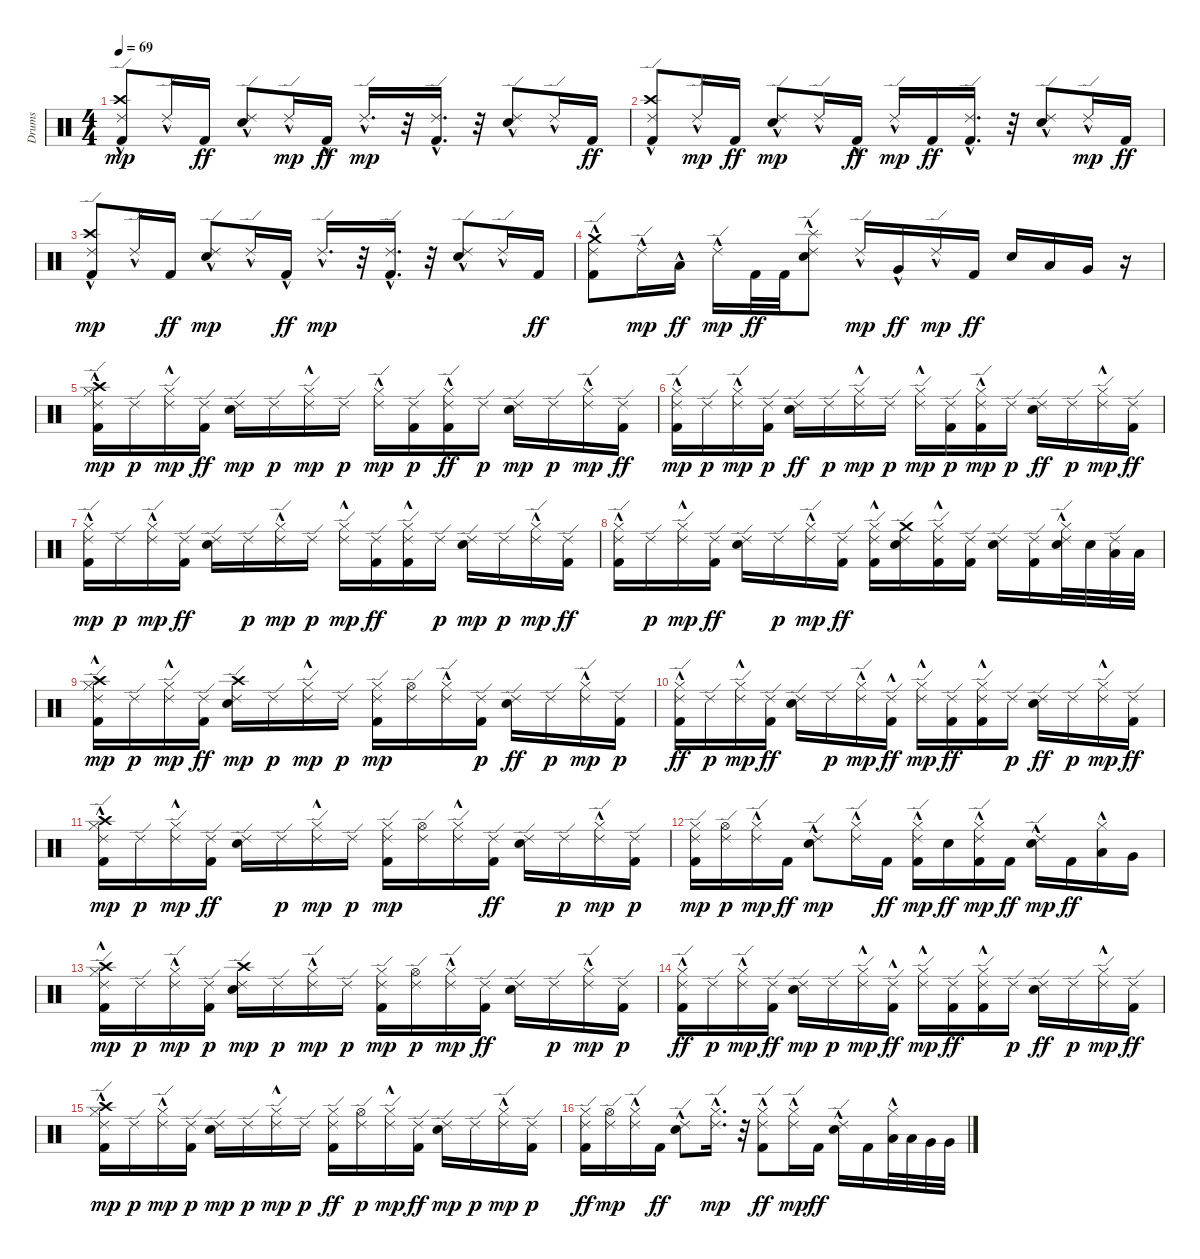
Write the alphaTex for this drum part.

\track ("Drums" "Drums") {instrument percussion}
\staff {score}
\articulation defaults
\ts (4 4)
\tempo 69
\clef neutral
\ks c
("Kick (hit) 2" "Crash high (hit)"{hac} "Ride (edge) 2"{hac}).8{dy mp} "Ride (edge) 2"{hac}.16 "Kick (hit) 2".16{dy ff} ("Ride (edge) 2"{hac} "Electric Snare (hit)").8 "Ride (edge) 2"{hac}.16{dy mp} "Kick (hit) 2"{hac}.16{dy ff} "Ride (edge) 2"{hac}.16{d dy mp} r.32 ("Kick (hit) 2"{hac} "Ride (edge) 2"{hac}).16{d} r.32 ("Electric Snare (hit)" "Ride (edge) 2"{hac}).8 "Ride (edge) 2"{hac}.16 "Kick (hit) 2".16{dy ff} |
("Ride (edge) 2"{hac} "Kick (hit) 2" "Crash high (hit)"{hac}).8 "Ride (edge) 2"{hac}.16{dy mp} "Kick (hit) 2".16{dy ff} ("Electric Snare (hit)" "Ride (edge) 2"{hac}).8{dy mp} "Ride (edge) 2"{hac}.16 "Kick (hit) 2"{hac}.16{dy ff} "Ride (edge) 2"{hac}.16{dy mp} "Kick (hit) 2".16{dy ff} ("Ride (edge) 2"{hac} "Kick (hit) 2"{hac}).16{d} r.32 ("Ride (edge) 2"{hac} "Electric Snare (hit)").8 "Ride (edge) 2"{hac}.16{dy mp} "Kick (hit) 2".16{dy ff} |
("Kick (hit) 2" "Crash high (hit)"{hac} "Ride (edge) 2"{hac}).8{dy mp} "Ride (edge) 2"{hac}.16 "Kick (hit) 2".16{dy ff} ("Electric Snare (hit)" "Ride (edge) 2"{hac}).8{dy mp} "Ride (edge) 2"{hac}.16 "Kick (hit) 2"{hac}.16{dy ff} "Ride (edge) 2"{hac}.16{d dy mp} r.32 ("Kick (hit) 2"{hac} "Ride (edge) 2"{hac}).16{d} r.32 ("Electric Snare (hit)" "Ride (edge) 2"{hac}).8 "Ride (edge) 2"{hac}.16 "Kick (hit) 2".16{dy ff} |
("Ride (edge) 2"{hac} "Crash medium (hit)"{hac} "Kick (hit) 2").8 "Ride (edge) 2"{hac}.16{dy mp} "Low Tom (hit)"{hac}.16{dy ff} "Ride (edge) 2"{hac}.16{dy mp} "Kick (hit) 2".32{dy ff} "Kick (hit) 2".32 ("Ride (edge) 2"{hac} "Electric Snare (hit)" "Splash (hit)").8 "Ride (edge) 2"{hac}.16{dy mp} "Very Low Tom (hit)"{hac}.16{dy ff} "Ride (edge) 2"{hac}.16{dy mp} "Kick (hit) 2".16{dy ff} "Electric Snare (hit)".16 "Low Floor Tom (hit)".16 "Very Low Tom (hit)".16 r.16 |
("Hi-Hat (closed)"{hac} "Crash high (hit)"{hac} "Kick (hit) 2" "Ride (edge) 2").16{dy mp} "Ride (edge) 2".16{dy p} ("Ride (edge) 2" "Hi-Hat (closed)"{hac}).16{dy mp} ("Ride (edge) 2" "Kick (hit) 2").16{dy ff} ("Electric Snare (hit)" "Ride (edge) 2").16{dy mp} "Ride (edge) 2".16{dy p} ("Ride (edge) 2" "Hi-Hat (closed)"{hac}).16{dy mp} "Ride (edge) 2".16{dy p} ("Hi-Hat (closed)"{hac} "Ride (edge) 2").16{dy mp} ("Kick (hit) 2" "Ride (edge) 2").16{dy p} ("Hi-Hat (closed)"{hac} "Ride (edge) 2" "Kick (hit) 2"{hac}).16{dy ff} "Ride (edge) 2".16{dy p} ("Electric Snare (hit)" "Ride (edge) 2").16{dy mp} "Ride (edge) 2".16{dy p} ("Hi-Hat (closed)"{hac} "Ride (edge) 2").16{dy mp} ("Ride (edge) 2" "Kick (hit) 2").16{dy ff} |
("Hi-Hat (closed)"{hac} "Kick (hit) 2" "Ride (edge) 2").16{dy mp} "Ride (edge) 2".16{dy p} ("Hi-Hat (closed)"{hac} "Ride (edge) 2").16{dy mp} ("Kick (hit) 2" "Ride (edge) 2").16{dy p} ("Ride (edge) 2" "Electric Snare (hit)").16{dy ff} "Ride (edge) 2".16{dy p} ("Ride (edge) 2" "Hi-Hat (closed)"{hac}).16{dy mp} "Ride (edge) 2".16{dy p} ("Ride (edge) 2" "Hi-Hat (closed)"{hac}).16{dy mp} ("Kick (hit) 2" "Ride (edge) 2").16{dy p} ("Kick (hit) 2"{hac} "Ride (edge) 2" "Hi-Hat (closed)"{hac}).16{dy mp} "Ride (edge) 2".16{dy p} ("Ride (edge) 2" "Electric Snare (hit)").16{dy ff} "Ride (edge) 2".16{dy p} ("Ride (edge) 2" "Hi-Hat (closed)"{hac}).16{dy mp} ("Ride (edge) 2" "Kick (hit) 2").16{dy ff} |
("Hi-Hat (closed)"{hac} "Kick (hit) 2" "Ride (edge) 2").16{dy mp} "Ride (edge) 2".16{dy p} ("Hi-Hat (closed)"{hac} "Ride (edge) 2").16{dy mp} ("Ride (edge) 2" "Kick (hit) 2").16{dy ff} ("Ride (edge) 2" "Electric Snare (hit)").16 "Ride (edge) 2".16{dy p} ("Hi-Hat (closed)"{hac} "Ride (edge) 2").16{dy mp} "Ride (edge) 2".16{dy p} ("Ride (edge) 2" "Hi-Hat (closed)"{hac}).16{dy mp} ("Ride (edge) 2" "Kick (hit) 2").16{dy ff} ("Ride (edge) 2" "Hi-Hat (closed)"{hac} "Kick (hit) 2"{hac}).16 "Ride (edge) 2".16{dy p} ("Electric Snare (hit)" "Ride (edge) 2").16{dy mp} "Ride (edge) 2".16{dy p} ("Hi-Hat (closed)"{hac} "Ride (edge) 2").16{dy mp} ("Ride (edge) 2" "Kick (hit) 2").16{dy ff} |
("Hi-Hat (closed)"{hac} "Ride (edge) 2" "Kick (hit) 2").16 "Ride (edge) 2".16{dy p} ("Ride (edge) 2" "Hi-Hat (closed)"{hac}).16{dy mp} ("Ride (edge) 2" "Kick (hit) 2").16{dy ff} ("Ride (edge) 2" "Electric Snare (hit)").16 "Ride (edge) 2".16{dy p} ("Hi-Hat (closed)"{hac} "Ride (edge) 2").16{dy mp} ("Ride (edge) 2" "Kick (hit) 2").16{dy ff} ("Ride (edge) 2" "Hi-Hat (closed)"{hac} "Kick (hit) 2").16 ("Ride (edge) 2" "Crash medium (hit)" "Electric Snare (hit)").16 ("Ride (edge) 2" "Hi-Hat (closed)"{hac} "Kick (hit) 2").16 ("Ride (edge) 2" "Kick (hit) 2").16 ("Ride (edge) 2" "Electric Snare (hit)").16 ("Ride (edge) 2" "Kick (hit) 2").16 ("Hi-Hat (closed)"{hac} "Ride (edge) 2" "Electric Snare (hit)").32 "Electric Snare (hit)".32 ("Ride (edge) 2" "Low Tom (hit)").32 "Low Tom (hit)".32 |
("Crash high (hit)" "Ride (edge) 2" "Kick (hit) 2" "Hi-Hat (closed)"{hac}).16{dy mp} "Ride (edge) 2".16{dy p} ("Ride (edge) 2" "Hi-Hat (closed)"{hac}).16{dy mp} ("Ride (edge) 2" "Kick (hit) 2").16{dy ff} ("Ride (edge) 2" "Electric Snare (hit)" "Crash high (hit)").16{dy mp} "Ride (edge) 2".16{dy p} ("Ride (edge) 2" "Hi-Hat (closed)"{hac}).16{dy mp} "Ride (edge) 2".16{dy p} ("Ride (edge) 2" "Kick (hit) 2" "Hi-Hat (closed)").16{dy mp} ("Ride (edge) 2" "Hi-Hat (open)").16 ("Hi-Hat (closed)"{hac} "Ride (edge) 2").16 ("Kick (hit) 2" "Ride (edge) 2").16{dy p} ("Ride (edge) 2" "Electric Snare (hit)").16{dy ff} "Ride (edge) 2".16{dy p} ("Hi-Hat (closed)"{hac} "Ride (edge) 2").16{dy mp} ("Kick (hit) 2" "Ride (edge) 2").16{dy p} |
("Hi-Hat (closed)"{hac} "Ride (edge) 2" "Kick (hit) 2").16{dy ff} "Ride (edge) 2".16{dy p} ("Ride (edge) 2" "Hi-Hat (closed)"{hac}).16{dy mp} ("Ride (edge) 2" "Kick (hit) 2").16{dy ff} ("Ride (edge) 2" "Electric Snare (hit)").16 "Ride (edge) 2".16{dy p} ("Hi-Hat (closed)"{hac} "Ride (edge) 2").16{dy mp} ("Ride (edge) 2" "Kick (hit) 2"{hac}).16{dy ff} ("Ride (edge) 2" "Hi-Hat (closed)"{hac}).16{dy mp} ("Ride (edge) 2" "Kick (hit) 2").16{dy ff} ("Ride (edge) 2" "Hi-Hat (closed)"{hac} "Kick (hit) 2"{hac}).16 "Ride (edge) 2".16{dy p} ("Ride (edge) 2" "Electric Snare (hit)").16{dy ff} "Ride (edge) 2".16{dy p} ("Ride (edge) 2" "Hi-Hat (closed)"{hac}).16{dy mp} ("Ride (edge) 2" "Kick (hit) 2").16{dy ff} |
("Crash high (hit)"{hac} "Kick (hit) 2" "Ride (edge) 2" "Hi-Hat (closed)"{hac}).16{dy mp} "Ride (edge) 2".16{dy p} ("Ride (edge) 2" "Hi-Hat (closed)"{hac}).16{dy mp} ("Ride (edge) 2" "Kick (hit) 2").16{dy ff} ("Ride (edge) 2" "Electric Snare (hit)").16 "Ride (edge) 2".16{dy p} ("Ride (edge) 2" "Hi-Hat (closed)"{hac}).16{dy mp} "Ride (edge) 2".16{dy p} ("Ride (edge) 2" "Kick (hit) 2" "Hi-Hat (closed)").16{dy mp} ("Ride (edge) 2" "Hi-Hat (open)").16 ("Ride (edge) 2" "Hi-Hat (closed)"{hac}).16 ("Ride (edge) 2" "Kick (hit) 2").16{dy ff} ("Ride (edge) 2" "Electric Snare (hit)").16 "Ride (edge) 2".16{dy p} ("Hi-Hat (closed)"{hac} "Ride (edge) 2").16{dy mp} ("Kick (hit) 2" "Ride (edge) 2").16{dy p} |
("Kick (hit) 2" "Hi-Hat (closed)" "Ride (edge) 2").16{dy mp} ("Hi-Hat (open)" "Ride (edge) 2").16{dy p} ("Hi-Hat (closed)"{hac} "Ride (edge) 2"{hac}).16{dy mp} "Kick (hit) 2".16{dy ff} ("Electric Snare (hit)" "Ride (edge) 2"{hac}).8{dy mp} ("Hi-Hat (closed)"{hac} "Ride (edge) 2"{hac}).16 "Kick (hit) 2".16{dy ff} ("Hi-Hat (closed)"{hac} "Kick (hit) 2" "Ride (edge) 2"{hac}).16{dy mp} "Electric Snare (hit)".16{dy ff} ("Kick (hit) 2" "Ride (edge) 2"{hac} "Hi-Hat (closed)"{hac}).16{dy mp} "Kick (hit) 2".16{dy ff} ("Electric Snare (hit)" "Ride (edge) 2"{hac}).16{dy mp} "Kick (hit) 2".16{dy ff} ("Hi-Hat (closed)"{hac} "Low Tom (hit)").16 "Very Low Tom (hit)".16 |
("Crash high (hit)" "Ride (edge) 2" "Kick (hit) 2" "Hi-Hat (closed)"{hac}).16{dy mp} "Ride (edge) 2".16{dy p} ("Hi-Hat (closed)"{hac} "Ride (edge) 2").16{dy mp} ("Kick (hit) 2" "Ride (edge) 2").16{dy p} ("Crash high (hit)" "Electric Snare (hit)" "Ride (edge) 2").16{dy mp} "Ride (edge) 2".16{dy p} ("Hi-Hat (closed)"{hac} "Ride (edge) 2").16{dy mp} "Ride (edge) 2".16{dy p} ("Ride (edge) 2" "Kick (hit) 2" "Hi-Hat (closed)").16{dy mp} ("Hi-Hat (open)" "Ride (edge) 2").16{dy p} ("Hi-Hat (closed)"{hac} "Ride (edge) 2").16{dy mp} ("Ride (edge) 2" "Kick (hit) 2").16{dy ff} ("Ride (edge) 2" "Electric Snare (hit)").16 "Ride (edge) 2".16{dy p} ("Hi-Hat (closed)"{hac} "Ride (edge) 2").16{dy mp} ("Kick (hit) 2" "Ride (edge) 2").16{dy p} |
("Hi-Hat (closed)"{hac} "Ride (edge) 2" "Kick (hit) 2").16{dy ff} "Ride (edge) 2".16{dy p} ("Hi-Hat (closed)"{hac} "Ride (edge) 2").16{dy mp} ("Ride (edge) 2" "Kick (hit) 2").16{dy ff} ("Electric Snare (hit)" "Ride (edge) 2").16{dy mp} "Ride (edge) 2".16{dy p} ("Ride (edge) 2" "Hi-Hat (closed)"{hac}).16{dy mp} ("Ride (edge) 2" "Kick (hit) 2"{hac}).16{dy ff} ("Ride (edge) 2" "Hi-Hat (closed)"{hac}).16{dy mp} ("Ride (edge) 2" "Kick (hit) 2").16{dy ff} ("Ride (edge) 2" "Hi-Hat (closed)"{hac} "Kick (hit) 2"{hac}).16 "Ride (edge) 2".16{dy p} ("Ride (edge) 2" "Electric Snare (hit)").16{dy ff} "Ride (edge) 2".16{dy p} ("Ride (edge) 2" "Hi-Hat (closed)"{hac}).16{dy mp} ("Ride (edge) 2" "Kick (hit) 2").16{dy ff} |
("Crash high (hit)"{hac} "Kick (hit) 2" "Ride (edge) 2" "Hi-Hat (closed)"{hac}).16{dy mp} "Ride (edge) 2".16{dy p} ("Hi-Hat (closed)"{hac} "Ride (edge) 2").16{dy mp} ("Kick (hit) 2" "Ride (edge) 2").16{dy p} ("Electric Snare (hit)" "Ride (edge) 2").16{dy mp} "Ride (edge) 2".16{dy p} ("Ride (edge) 2" "Hi-Hat (closed)"{hac}).16{dy mp} "Ride (edge) 2".16{dy p} ("Ride (edge) 2" "Hi-Hat (closed)" "Kick (hit) 2").16{dy ff} ("Hi-Hat (open)" "Ride (edge) 2").16{dy p} ("Ride (edge) 2" "Hi-Hat (closed)"{hac}).16{dy mp} ("Ride (edge) 2" "Kick (hit) 2").16{dy ff} ("Electric Snare (hit)" "Ride (edge) 2").16{dy mp} "Ride (edge) 2".16{dy p} ("Hi-Hat (closed)"{hac} "Ride (edge) 2").16{dy mp} ("Kick (hit) 2" "Ride (edge) 2").16{dy p} |
("Ride (edge) 2" "Hi-Hat (closed)" "Kick (hit) 2").16{dy ff} ("Ride (edge) 2" "Hi-Hat (open)").16{dy mp} ("Ride (edge) 2"{hac} "Hi-Hat (closed)"{hac}).16 "Kick (hit) 2".16{dy ff} ("Ride (edge) 2"{hac} "Electric Snare (hit)").8 ("Hi-Hat (closed)"{hac} "Ride (edge) 2"{hac}).16{d dy mp} r.32 ("Ride (edge) 2"{hac} "Hi-Hat (closed)"{hac} "Kick (hit) 2").8{dy ff} ("Hi-Hat (closed)"{hac} "Ride (edge) 2"{hac}).16{dy mp} "Kick (hit) 2".16{dy ff} ("Ride (edge) 2"{hac} "Electric Snare (hit)").16 "Kick (hit) 2".16 ("Hi-Hat (closed)"{hac} "Low Tom (hit)").32 "Low Tom (hit)".32 "Very Low Tom (hit)".32 "Very Low Tom (hit)".32
